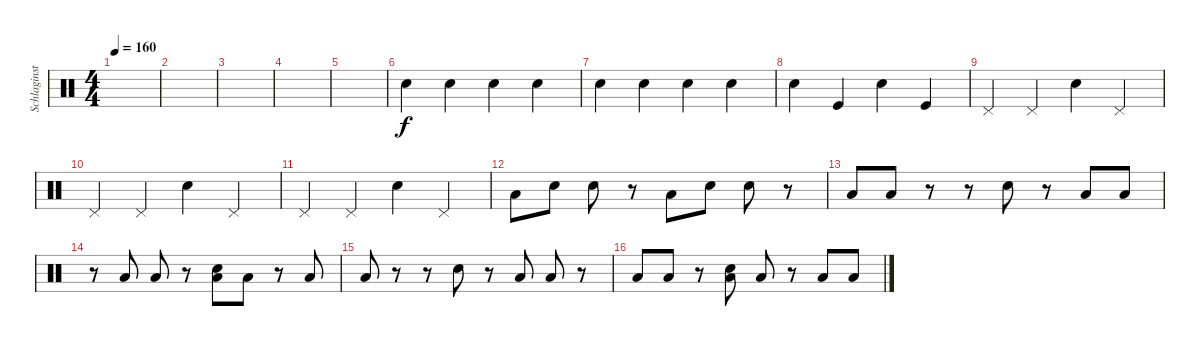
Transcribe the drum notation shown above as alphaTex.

\track ("Schlaginstrumente - Auswahl" "Schlaginst") {instrument percussion}
\staff {score}
\articulation defaults
\ts (4 4)
\tempo 160
\clef neutral
\ks c
|
|
|
|
|
"Snare (hit) 2".4 "Snare (hit) 2".4 "Snare (hit) 2".4 "Snare (hit) 2".4 |
"Snare (hit) 2".4 "Snare (hit) 2".4 "Snare (hit) 2".4 "Snare (hit) 2".4 |
"Snare (hit) 2".4 "Kick (hit)".4 "Snare (hit) 2".4 "Kick (hit)".4 |
"Pedal Hi-Hat (hit)".4 "Pedal Hi-Hat (hit)".4 "Snare (hit) 2".4 "Pedal Hi-Hat (hit)".4 |
"Pedal Hi-Hat (hit)".4 "Pedal Hi-Hat (hit)".4 "Snare (hit) 2".4 "Pedal Hi-Hat (hit)".4 |
"Pedal Hi-Hat (hit)".4 "Pedal Hi-Hat (hit)".4 "Snare (hit) 2".4 "Pedal Hi-Hat (hit)".4 |
"Low Floor Tom (hit)".8 "Snare (hit) 2".8 "Snare (hit) 2".8 r.8 "Low Floor Tom (hit)".8 "Snare (hit) 2".8 "Snare (hit) 2".8 r.8 |
"Low Floor Tom (hit)".8 "Low Floor Tom (hit)".8 r.8 r.8 "Snare (hit) 2".8 r.8 "Low Floor Tom (hit)".8 "Low Floor Tom (hit)".8 |
r.8 "Low Floor Tom (hit)".8 "Low Floor Tom (hit)".8 r.8 ("Snare (hit) 2" "Low Floor Tom (hit)").8 "Low Floor Tom (hit)".8 r.8 "Low Floor Tom (hit)".8 |
"Low Floor Tom (hit)".8 r.8 r.8 "Snare (hit) 2".8 r.8 "Low Floor Tom (hit)".8 "Low Floor Tom (hit)".8 r.8 |
"Low Floor Tom (hit)".8 "Low Floor Tom (hit)".8 r.8 ("Snare (hit) 2" "Low Floor Tom (hit)").8 "Low Floor Tom (hit)".8 r.8 "Low Floor Tom (hit)".8 "Low Floor Tom (hit)".8
